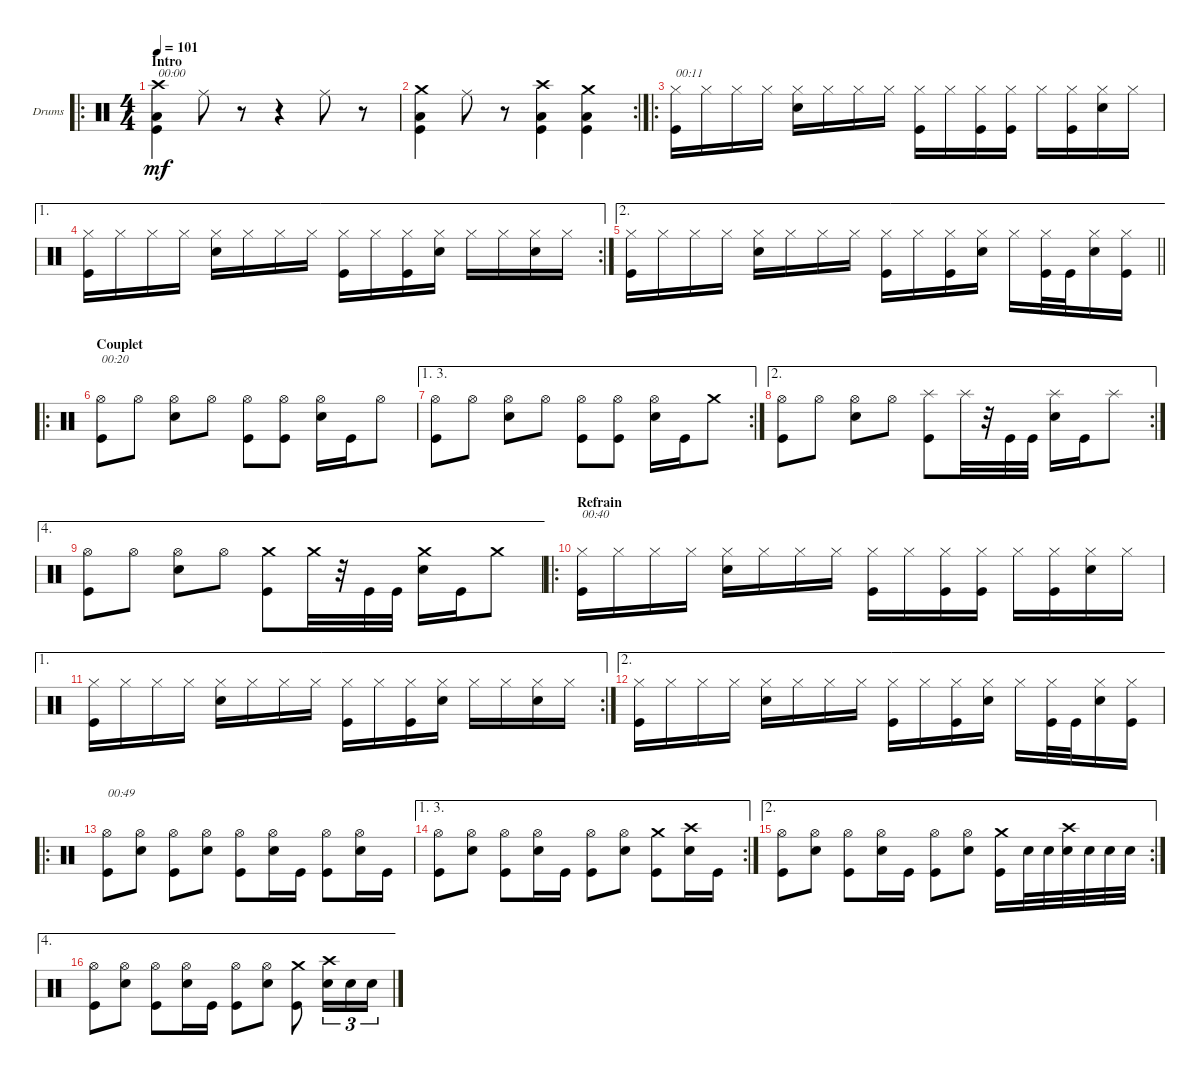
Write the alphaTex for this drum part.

\bracketExtendMode groupsimilarinstruments
\firstSystemTrackNameOrientation horizontal
\otherSystemsTrackNameOrientation horizontal
\track ("Drumkit" "Drums") {instrument percussion}
\staff {score}
\articulation defaults
\ro
\ts (4 4)
\section ("" "Intro")
\tempo 101
\clef neutral
\ks c
("Kick (hit)" "Low Tom (hit)" "Crash high (hit)").4{txt "00:00" dy mf} "Ride (middle)".8 r.8 r.4 "Ride (middle)".8 r.8 |
\rc 2
("Kick (hit)" "Low Tom (hit)" "Crash medium (hit)").4 "Ride (middle)".8 r.8 ("Kick (hit)" "Low Tom (hit)" "Crash high (hit)").4 ("Kick (hit)" "Low Tom (hit)" "Crash medium (hit)").4 |
\ro
("Kick (hit)" "Hi-Hat (closed)").16{txt "00:11"} "Hi-Hat (closed)".16 "Hi-Hat (closed)".16 "Hi-Hat (closed)".16 ("Snare (hit) 2" "Hi-Hat (closed)").16 "Hi-Hat (closed)".16 "Hi-Hat (closed)".16 "Hi-Hat (closed)".16 ("Kick (hit)" "Hi-Hat (closed)").16 "Hi-Hat (closed)".16 ("Hi-Hat (closed)" "Kick (hit)").16 ("Hi-Hat (closed)" "Kick (hit)").16 "Hi-Hat (closed)".16 ("Hi-Hat (closed)" "Kick (hit)").16 ("Hi-Hat (closed)" "Snare (hit) 2").16 "Hi-Hat (closed)".16 |
\ae 1
\rc 2
("Kick (hit)" "Hi-Hat (closed)").16 "Hi-Hat (closed)".16 "Hi-Hat (closed)".16 "Hi-Hat (closed)".16 ("Snare (hit) 2" "Hi-Hat (closed)").16 "Hi-Hat (closed)".16 "Hi-Hat (closed)".16 "Hi-Hat (closed)".16 ("Kick (hit)" "Hi-Hat (closed)").16 "Hi-Hat (closed)".16 ("Hi-Hat (closed)" "Kick (hit)").16 ("Hi-Hat (closed)" "Snare (hit) 2").16 "Hi-Hat (closed)".16 "Hi-Hat (closed)".16 ("Hi-Hat (closed)" "Snare (hit) 2").16 "Hi-Hat (closed)".16 |
\ae 2
\barLineRight lightlight
("Kick (hit)" "Hi-Hat (closed)").16 "Hi-Hat (closed)".16 "Hi-Hat (closed)".16 "Hi-Hat (closed)".16 ("Snare (hit) 2" "Hi-Hat (closed)").16 "Hi-Hat (closed)".16 "Hi-Hat (closed)".16 "Hi-Hat (closed)".16 ("Kick (hit)" "Hi-Hat (closed)").16 "Hi-Hat (closed)".16 ("Hi-Hat (closed)" "Kick (hit)").16 ("Hi-Hat (closed)" "Snare (hit) 2").16 "Hi-Hat (closed)".16 ("Hi-Hat (closed)" "Kick (hit)").32 "Kick (hit)".32 ("Hi-Hat (closed)" "Snare (hit) 2").16 ("Hi-Hat (closed)" "Kick (hit)").16 |
\ro
\section ("" "Couplet")
("Hi-Hat (open)" "Kick (hit)").8{txt "00:20"} "Hi-Hat (open)".8 ("Hi-Hat (open)" "Snare (hit) 2").8 "Hi-Hat (open)".8 ("Hi-Hat (open)" "Kick (hit)").8 ("Hi-Hat (open)" "Kick (hit)").8 ("Hi-Hat (open)" "Snare (hit) 2").16 "Kick (hit)".16 "Hi-Hat (open)".8 |
\ae (1 3)
\rc 2
("Hi-Hat (open)" "Kick (hit)").8 "Hi-Hat (open)".8 ("Hi-Hat (open)" "Snare (hit) 2").8 "Hi-Hat (open)".8 ("Hi-Hat (open)" "Kick (hit)").8 ("Hi-Hat (open)" "Kick (hit)").8 ("Hi-Hat (open)" "Snare (hit) 2").16 "Kick (hit)".16 "Crash medium (hit)".8 |
\ae 2
\rc 2
("Hi-Hat (open)" "Kick (hit)").8 "Hi-Hat (open)".8 ("Hi-Hat (open)" "Snare (hit) 2").8 "Hi-Hat (open)".8 ("Kick (hit)" "Splash (hit)").8 "Splash (hit)".32 r.32 "Kick (hit)".32 "Kick (hit)".32 ("Snare (hit) 2" "Splash (hit)").16 "Kick (hit)".16 "Splash (hit)".8 |
\ae 4
("Hi-Hat (open)" "Kick (hit)").8 "Hi-Hat (open)".8 ("Hi-Hat (open)" "Snare (hit) 2").8 "Hi-Hat (open)".8 ("Kick (hit)" "Crash medium (hit)").8 "Crash medium (hit)".32 r.32 "Kick (hit)".32 "Kick (hit)".32 ("Snare (hit) 2" "Crash medium (hit)").16 "Kick (hit)".16 "Crash medium (hit)".8 |
\ro
\section ("" "Refrain")
("Kick (hit)" "Hi-Hat (closed)").16{txt "00:40"} "Hi-Hat (closed)".16 "Hi-Hat (closed)".16 "Hi-Hat (closed)".16 ("Snare (hit) 2" "Hi-Hat (closed)").16 "Hi-Hat (closed)".16 "Hi-Hat (closed)".16 "Hi-Hat (closed)".16 ("Kick (hit)" "Hi-Hat (closed)").16 "Hi-Hat (closed)".16 ("Hi-Hat (closed)" "Kick (hit)").16 ("Hi-Hat (closed)" "Kick (hit)").16 "Hi-Hat (closed)".16 ("Hi-Hat (closed)" "Kick (hit)").16 ("Hi-Hat (closed)" "Snare (hit) 2").16 "Hi-Hat (closed)".16 |
\ae 1
\rc 2
("Kick (hit)" "Hi-Hat (closed)").16 "Hi-Hat (closed)".16 "Hi-Hat (closed)".16 "Hi-Hat (closed)".16 ("Snare (hit) 2" "Hi-Hat (closed)").16 "Hi-Hat (closed)".16 "Hi-Hat (closed)".16 "Hi-Hat (closed)".16 ("Kick (hit)" "Hi-Hat (closed)").16 "Hi-Hat (closed)".16 ("Hi-Hat (closed)" "Kick (hit)").16 ("Hi-Hat (closed)" "Snare (hit) 2").16 "Hi-Hat (closed)".16 "Hi-Hat (closed)".16 ("Hi-Hat (closed)" "Snare (hit) 2").16 "Hi-Hat (closed)".16 |
\ae 2
("Kick (hit)" "Hi-Hat (closed)").16 "Hi-Hat (closed)".16 "Hi-Hat (closed)".16 "Hi-Hat (closed)".16 ("Snare (hit) 2" "Hi-Hat (closed)").16 "Hi-Hat (closed)".16 "Hi-Hat (closed)".16 "Hi-Hat (closed)".16 ("Kick (hit)" "Hi-Hat (closed)").16 "Hi-Hat (closed)".16 ("Hi-Hat (closed)" "Kick (hit)").16 ("Hi-Hat (closed)" "Snare (hit) 2").16 "Hi-Hat (closed)".16 ("Hi-Hat (closed)" "Kick (hit)").32 "Kick (hit)".32 ("Hi-Hat (closed)" "Snare (hit) 2").16 ("Hi-Hat (closed)" "Kick (hit)").16 |
\ro
("Hi-Hat (open)" "Kick (hit)").8{txt "00:49"} ("Hi-Hat (open)" "Snare (hit) 2").8 ("Hi-Hat (open)" "Kick (hit)").8 ("Hi-Hat (open)" "Snare (hit) 2").8 ("Hi-Hat (open)" "Kick (hit)").8 ("Hi-Hat (open)" "Snare (hit) 2").16 "Kick (hit)".16 ("Hi-Hat (open)" "Kick (hit)").8 ("Hi-Hat (open)" "Snare (hit) 2").16 "Kick (hit)".16 |
\ae (1 3)
\rc 2
("Hi-Hat (open)" "Kick (hit)").8 ("Hi-Hat (open)" "Snare (hit) 2").8 ("Hi-Hat (open)" "Kick (hit)").8 ("Hi-Hat (open)" "Snare (hit) 2").16 "Kick (hit)".16 ("Hi-Hat (open)" "Kick (hit)").8 ("Hi-Hat (open)" "Snare (hit) 2").8 ("Crash medium (hit)" "Kick (hit)").8 ("Crash high (hit)" "Snare (hit) 2").16 "Kick (hit)".16 |
\ae 2
\rc 2
("Hi-Hat (open)" "Kick (hit)").8 ("Hi-Hat (open)" "Snare (hit) 2").8 ("Hi-Hat (open)" "Kick (hit)").8 ("Hi-Hat (open)" "Snare (hit) 2").16 "Kick (hit)".16 ("Hi-Hat (open)" "Kick (hit)").8 ("Hi-Hat (open)" "Snare (hit) 2").8 ("Crash medium (hit)" "Kick (hit)").16 "Snare (hit) 2".32 "Snare (hit) 2".32 ("Crash high (hit)" "Snare (hit) 2").32 "Snare (hit) 2".32 "Snare (hit) 2".32 "Snare (hit) 2".32 |
\ae 4
("Hi-Hat (open)" "Kick (hit)").8 ("Hi-Hat (open)" "Snare (hit) 2").8 ("Hi-Hat (open)" "Kick (hit)").8 ("Hi-Hat (open)" "Snare (hit) 2").16 "Kick (hit)".16 ("Hi-Hat (open)" "Kick (hit)").8 ("Hi-Hat (open)" "Snare (hit) 2").8 ("Crash medium (hit)" "Kick (hit)").8 ("Crash high (hit)" "Snare (hit) 2").16{tu (3 2)} "Snare (hit) 2".16{tu (3 2)} "Snare (hit) 2".16{tu (3 2)}
